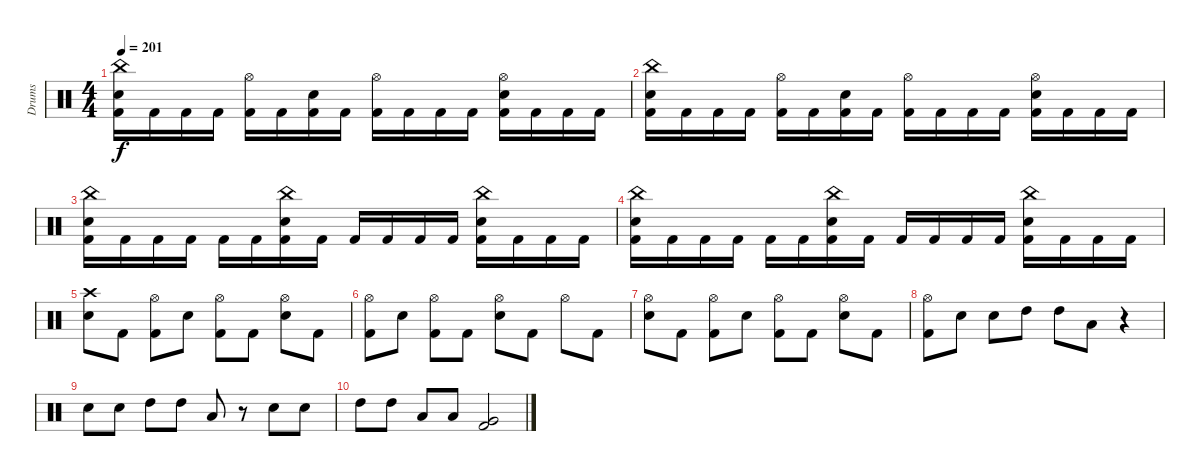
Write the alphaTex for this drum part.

\track ("Drums" "Drums") {instrument percussion}
\staff {score}
\articulation defaults
\ts (4 4)
\tempo 201
\clef neutral
\ks c
("China (hit)" "Snare (hit) 2" "Kick (hit) 2").16{dy f} "Kick (hit) 2".16 "Kick (hit) 2".16 "Kick (hit) 2".16 ("Hi-Hat (open)" "Kick (hit) 2").16 "Kick (hit) 2".16 ("Snare (hit) 2" "Kick (hit) 2").16 "Kick (hit) 2".16 ("Hi-Hat (open)" "Kick (hit) 2").16 "Kick (hit) 2".16 "Kick (hit) 2".16 "Kick (hit) 2".16 ("Hi-Hat (open)" "Snare (hit) 2" "Kick (hit) 2").16 "Kick (hit) 2".16 "Kick (hit) 2".16 "Kick (hit) 2".16 |
("China (hit)" "Snare (hit) 2" "Kick (hit) 2").16 "Kick (hit) 2".16 "Kick (hit) 2".16 "Kick (hit) 2".16 ("Hi-Hat (open)" "Kick (hit) 2").16 "Kick (hit) 2".16 ("Snare (hit) 2" "Kick (hit) 2").16 "Kick (hit) 2".16 ("Hi-Hat (open)" "Kick (hit) 2").16 "Kick (hit) 2".16 "Kick (hit) 2".16 "Kick (hit) 2".16 ("Hi-Hat (open)" "Snare (hit) 2" "Kick (hit) 2").16 "Kick (hit) 2".16 "Kick (hit) 2".16 "Kick (hit) 2".16 |
("China (hit)" "Snare (hit) 2" "Kick (hit) 2").16 "Kick (hit) 2".16 "Kick (hit) 2".16 "Kick (hit) 2".16 "Kick (hit) 2".16 "Kick (hit) 2".16 ("China (hit)" "Snare (hit) 2" "Kick (hit) 2").16 "Kick (hit) 2".16 "Kick (hit) 2".16 "Kick (hit) 2".16 "Kick (hit) 2".16 "Kick (hit) 2".16 ("China (hit)" "Snare (hit) 2" "Kick (hit) 2").16 "Kick (hit) 2".16 "Kick (hit) 2".16 "Kick (hit) 2".16 |
("China (hit)" "Snare (hit) 2" "Kick (hit) 2").16 "Kick (hit) 2".16 "Kick (hit) 2".16 "Kick (hit) 2".16 "Kick (hit) 2".16 "Kick (hit) 2".16 ("China (hit)" "Snare (hit) 2" "Kick (hit) 2").16 "Kick (hit) 2".16 "Kick (hit) 2".16 "Kick (hit) 2".16 "Kick (hit) 2".16 "Kick (hit) 2".16 ("China (hit)" "Snare (hit) 2" "Kick (hit) 2").16 "Kick (hit) 2".16 "Kick (hit) 2".16 "Kick (hit) 2".16 |
("Crash high (hit)" "Snare (hit) 2").8 "Kick (hit) 2".8 ("Hi-Hat (open)" "Kick (hit) 2").8 "Snare (hit) 2".8 ("Hi-Hat (open)" "Kick (hit) 2").8 "Kick (hit) 2".8 ("Hi-Hat (open)" "Snare (hit) 2").8 "Kick (hit) 2".8 |
("Hi-Hat (open)" "Kick (hit) 2").8 "Snare (hit) 2".8 ("Hi-Hat (open)" "Kick (hit) 2").8 "Kick (hit) 2".8 ("Hi-Hat (open)" "Snare (hit) 2").8 "Kick (hit) 2".8 "Hi-Hat (open)".8 "Kick (hit) 2".8 |
("Hi-Hat (open)" "Snare (hit) 2").8 "Kick (hit) 2".8 ("Hi-Hat (open)" "Kick (hit) 2").8 "Snare (hit) 2".8 ("Hi-Hat (open)" "Kick (hit) 2").8 "Kick (hit) 2".8 ("Hi-Hat (open)" "Snare (hit) 2").8 "Kick (hit) 2".8 |
("Hi-Hat (open)" "Kick (hit) 2").8 "Snare (hit) 2".8 "Snare (hit) 2".8 "High Tom (hit)".8 "High Tom (hit)".8 "Low Tom (hit)".8 r.4 |
"Snare (hit) 2".8 "Snare (hit) 2".8 "High Tom (hit)".8 "High Tom (hit)".8 "Low Tom (hit)".8 r.8 "Snare (hit) 2".8 "Snare (hit) 2".8 |
"High Tom (hit)".8 "High Tom (hit)".8 "Low Tom (hit)".8 "Low Tom (hit)".8 ("Very Low Tom (hit)" "Kick (hit) 2").2
